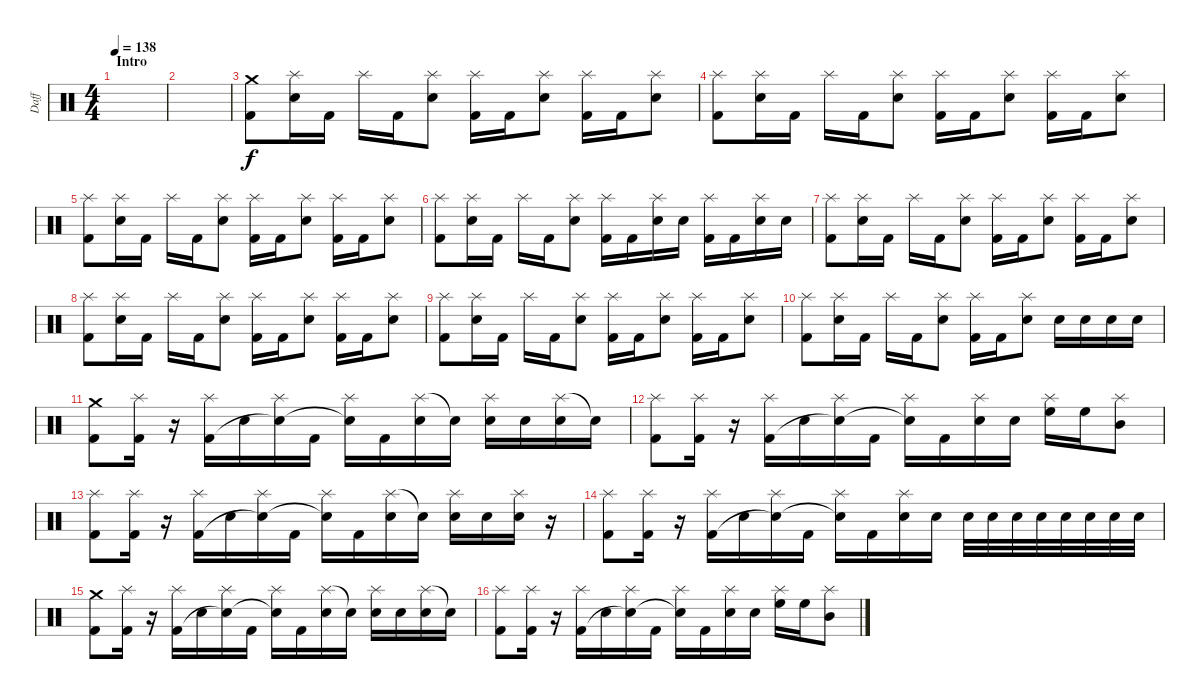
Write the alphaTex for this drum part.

\track ("Daff" "Daff") {instrument percussion}
\staff {score}
\articulation defaults
\ts (4 4)
\section ("" "Intro")
\tempo 138
\clef neutral
\ks c
|
|
("Crash medium (hit)" "Kick (hit) 2").8 ("Splash (hit)" "Electric Snare (hit)").16 "Kick (hit) 2".16 "Splash (hit)".16 "Kick (hit) 2".16 ("Splash (hit)" "Electric Snare (hit)").8 ("Splash (hit)" "Kick (hit) 2").16 "Kick (hit) 2".16 ("Splash (hit)" "Electric Snare (hit)").8 ("Splash (hit)" "Kick (hit) 2").16 "Kick (hit) 2".16 ("Splash (hit)" "Electric Snare (hit)").8 |
("Splash (hit)" "Kick (hit) 2").8 ("Splash (hit)" "Electric Snare (hit)").16 "Kick (hit) 2".16 "Splash (hit)".16 "Kick (hit) 2".16 ("Splash (hit)" "Electric Snare (hit)").8 ("Splash (hit)" "Kick (hit) 2").16 "Kick (hit) 2".16 ("Splash (hit)" "Electric Snare (hit)").8 ("Splash (hit)" "Kick (hit) 2").16 "Kick (hit) 2".16 ("Splash (hit)" "Electric Snare (hit)").8 |
("Splash (hit)" "Kick (hit) 2").8 ("Splash (hit)" "Electric Snare (hit)").16 "Kick (hit) 2".16 "Splash (hit)".16 "Kick (hit) 2".16 ("Splash (hit)" "Electric Snare (hit)").8 ("Splash (hit)" "Kick (hit) 2").16 "Kick (hit) 2".16 ("Splash (hit)" "Electric Snare (hit)").8 ("Splash (hit)" "Kick (hit) 2").16 "Kick (hit) 2".16 ("Splash (hit)" "Electric Snare (hit)").8 |
("Splash (hit)" "Kick (hit) 2").8 ("Splash (hit)" "Electric Snare (hit)").16 "Kick (hit) 2".16 "Splash (hit)".16 "Kick (hit) 2".16 ("Splash (hit)" "Electric Snare (hit)").8 ("Splash (hit)" "Kick (hit) 2").16 "Kick (hit) 2".16 ("Splash (hit)" "Electric Snare (hit)").16 "Electric Snare (hit)".16 ("Splash (hit)" "Kick (hit) 2").16 "Kick (hit) 2".16 ("Splash (hit)" "Electric Snare (hit)").16 "Electric Snare (hit)".16 |
("Splash (hit)" "Kick (hit) 2").8 ("Splash (hit)" "Electric Snare (hit)").16 "Kick (hit) 2".16 "Splash (hit)".16 "Kick (hit) 2".16 ("Splash (hit)" "Electric Snare (hit)").8 ("Splash (hit)" "Kick (hit) 2").16 "Kick (hit) 2".16 ("Splash (hit)" "Electric Snare (hit)").8 ("Splash (hit)" "Kick (hit) 2").16 "Kick (hit) 2".16 ("Splash (hit)" "Electric Snare (hit)").8 |
("Splash (hit)" "Kick (hit) 2").8 ("Splash (hit)" "Electric Snare (hit)").16 "Kick (hit) 2".16 "Splash (hit)".16 "Kick (hit) 2".16 ("Splash (hit)" "Electric Snare (hit)").8 ("Splash (hit)" "Kick (hit) 2").16 "Kick (hit) 2".16 ("Splash (hit)" "Electric Snare (hit)").8 ("Splash (hit)" "Kick (hit) 2").16 "Kick (hit) 2".16 ("Splash (hit)" "Electric Snare (hit)").8 |
("Splash (hit)" "Kick (hit) 2").8 ("Splash (hit)" "Electric Snare (hit)").16 "Kick (hit) 2".16 "Splash (hit)".16 "Kick (hit) 2".16 ("Splash (hit)" "Electric Snare (hit)").8 ("Splash (hit)" "Kick (hit) 2").16 "Kick (hit) 2".16 ("Splash (hit)" "Electric Snare (hit)").8 ("Splash (hit)" "Kick (hit) 2").16 "Kick (hit) 2".16 ("Splash (hit)" "Electric Snare (hit)").8 |
("Splash (hit)" "Kick (hit) 2").8 ("Splash (hit)" "Electric Snare (hit)").16 "Kick (hit) 2".16 "Splash (hit)".16 "Kick (hit) 2".16 ("Splash (hit)" "Electric Snare (hit)").8 ("Splash (hit)" "Kick (hit) 2").16 "Kick (hit) 2".16 ("Splash (hit)" "Electric Snare (hit)").8 "Electric Snare (hit)".16 "Electric Snare (hit)".16 "Electric Snare (hit)".16 "Electric Snare (hit)".16 |
("Crash medium (hit)" "Kick (hit) 2").8 ("Splash (hit)" "Kick (hit) 2").16 r.16 ("Splash (hit)" "Kick (hit) 2").16 "Electric Snare (hit)".16 ("Splash (hit)" "Snare (hit)"{t}).16 "Kick (hit) 2".16 ("Splash (hit)" "Snare (hit)"{t}).16 "Kick (hit) 2".16 ("Splash (hit)" "Electric Snare (hit)").16 "Snare (hit)"{t}.16 ("Splash (hit)" "Electric Snare (hit)").16 "Electric Snare (hit)".16 ("Splash (hit)" "Electric Snare (hit)").16 "Snare (hit)"{t}.16 |
("Splash (hit)" "Kick (hit) 2").8 ("Splash (hit)" "Kick (hit) 2").16 r.16 ("Splash (hit)" "Kick (hit) 2").16 "Electric Snare (hit)".16 ("Splash (hit)" "Snare (hit)"{t}).16 "Kick (hit) 2".16 ("Splash (hit)" "Snare (hit)"{t}).16 "Kick (hit) 2".16 ("Splash (hit)" "Electric Snare (hit)").16 "Electric Snare (hit)".16 ("Splash (hit)" "High Floor Tom (hit)").16 "High Floor Tom (hit)".16 ("Splash (hit)" "Mid Tom (hit)").8 |
("Splash (hit)" "Kick (hit) 2").8 ("Splash (hit)" "Kick (hit) 2").16 r.16 ("Splash (hit)" "Kick (hit) 2").16 "Electric Snare (hit)".16 ("Splash (hit)" "Snare (hit)"{t}).16 "Kick (hit) 2".16 ("Splash (hit)" "Snare (hit)"{t}).16 "Kick (hit) 2".16 ("Splash (hit)" "Electric Snare (hit)").16 "Snare (hit)"{t}.16 ("Splash (hit)" "Electric Snare (hit)").16 "Electric Snare (hit)".16 ("Splash (hit)" "Electric Snare (hit)").16 r.16 |
("Splash (hit)" "Kick (hit) 2").8 ("Splash (hit)" "Kick (hit) 2").16 r.16 ("Splash (hit)" "Kick (hit) 2").16 "Electric Snare (hit)".16 ("Splash (hit)" "Snare (hit)"{t}).16 "Kick (hit) 2".16 ("Splash (hit)" "Snare (hit)"{t}).16 "Kick (hit) 2".16 ("Splash (hit)" "Electric Snare (hit)").16 "Electric Snare (hit)".16 "Electric Snare (hit)".32 "Electric Snare (hit)".32 "Electric Snare (hit)".32 "Electric Snare (hit)".32 "Electric Snare (hit)".32 "Electric Snare (hit)".32 "Electric Snare (hit)".32 "Electric Snare (hit)".32 |
("Crash medium (hit)" "Kick (hit) 2").8 ("Splash (hit)" "Kick (hit) 2").16 r.16 ("Splash (hit)" "Kick (hit) 2").16 "Electric Snare (hit)".16 ("Splash (hit)" "Snare (hit)"{t}).16 "Kick (hit) 2".16 ("Splash (hit)" "Snare (hit)"{t}).16 "Kick (hit) 2".16 ("Splash (hit)" "Electric Snare (hit)").16 "Snare (hit)"{t}.16 ("Splash (hit)" "Electric Snare (hit)").16 "Electric Snare (hit)".16 ("Splash (hit)" "Electric Snare (hit)").16 "Snare (hit)"{t}.16 |
("Splash (hit)" "Kick (hit) 2").8 ("Splash (hit)" "Kick (hit) 2").16 r.16 ("Splash (hit)" "Kick (hit) 2").16 "Electric Snare (hit)".16 ("Splash (hit)" "Snare (hit)"{t}).16 "Kick (hit) 2".16 ("Splash (hit)" "Snare (hit)"{t}).16 "Kick (hit) 2".16 ("Splash (hit)" "Electric Snare (hit)").16 "Electric Snare (hit)".16 ("Splash (hit)" "High Floor Tom (hit)").16 "High Floor Tom (hit)".16 ("Splash (hit)" "Mid Tom (hit)").8
